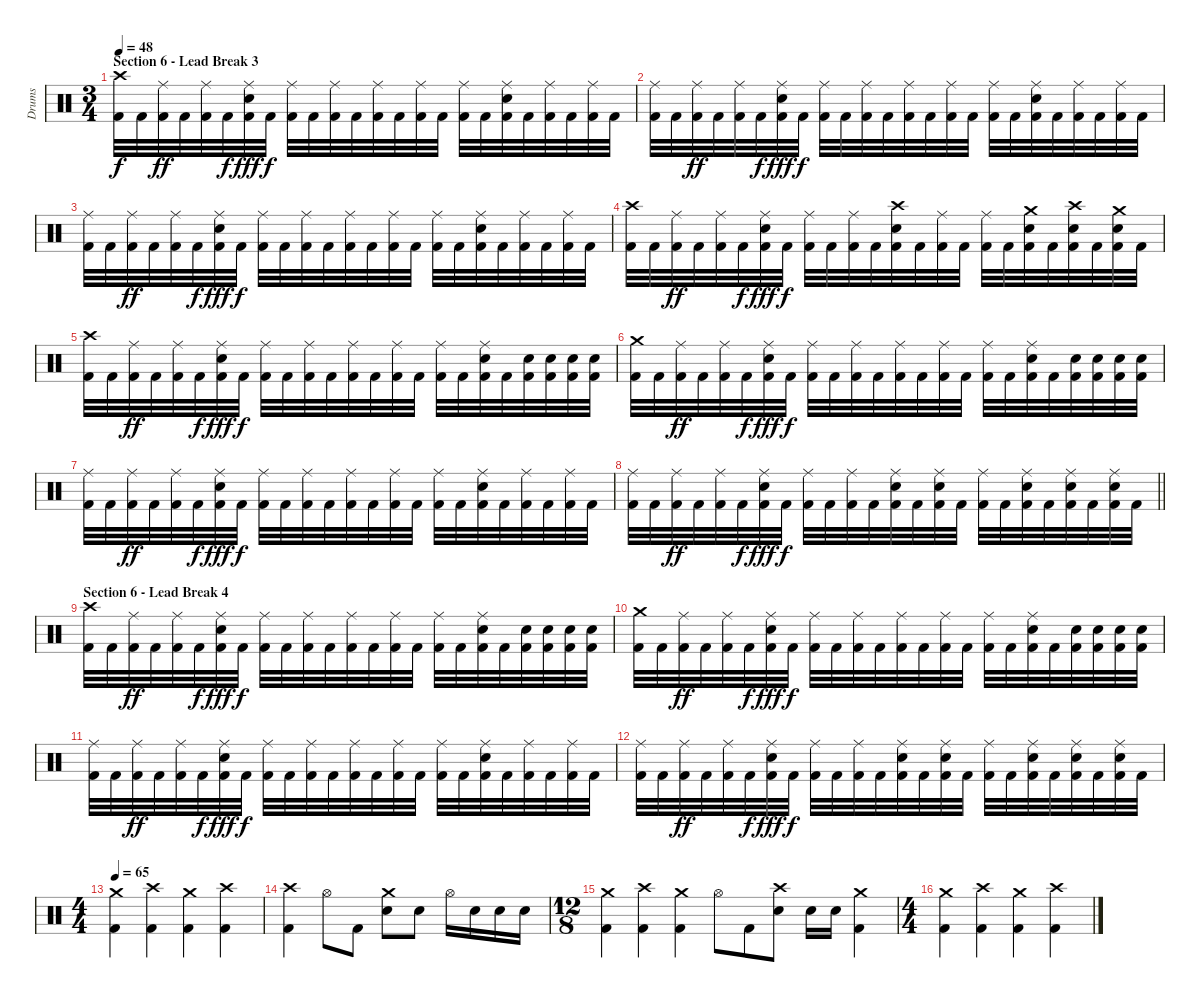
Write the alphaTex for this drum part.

\track ("Drums" "Drums") {instrument percussion}
\staff {score}
\articulation defaults
\ts (3 4)
\section ("" "Section 6 - Lead Break 3")
\tempo 48
\clef neutral
\ks c
("Crash high (hit)" "Kick (hit) 2").32{dy f} "Kick (hit) 2".32 ("Ride (middle)" "Kick (hit) 2").32{dy ff} "Kick (hit) 2".32 ("Ride (middle)" "Kick (hit) 2").32 "Kick (hit) 2".32{dy f} ("Ride (middle)" "Electric Snare (hit)" "Kick (hit) 2").32{dy fff} "Kick (hit) 2".32{dy f} ("Ride (middle)" "Kick (hit) 2").32 "Kick (hit) 2".32 ("Ride (middle)" "Kick (hit) 2").32 "Kick (hit) 2".32 ("Ride (middle)" "Kick (hit) 2").32 "Kick (hit) 2".32 ("Ride (middle)" "Kick (hit) 2").32 "Kick (hit) 2".32 ("Ride (middle)" "Kick (hit) 2").32 "Kick (hit) 2".32 ("Ride (middle)" "Electric Snare (hit)" "Kick (hit) 2").32 "Kick (hit) 2".32 ("Ride (middle)" "Kick (hit) 2").32 "Kick (hit) 2".32 ("Ride (middle)" "Kick (hit) 2").32 "Kick (hit) 2".32 |
("Ride (middle)" "Kick (hit) 2").32 "Kick (hit) 2".32 ("Ride (middle)" "Kick (hit) 2").32{dy ff} "Kick (hit) 2".32 ("Ride (middle)" "Kick (hit) 2").32 "Kick (hit) 2".32{dy f} ("Ride (middle)" "Electric Snare (hit)" "Kick (hit) 2").32{dy fff} "Kick (hit) 2".32{dy f} ("Ride (middle)" "Kick (hit) 2").32 "Kick (hit) 2".32 ("Ride (middle)" "Kick (hit) 2").32 "Kick (hit) 2".32 ("Ride (middle)" "Kick (hit) 2").32 "Kick (hit) 2".32 ("Ride (middle)" "Kick (hit) 2").32 "Kick (hit) 2".32 ("Ride (middle)" "Kick (hit) 2").32 "Kick (hit) 2".32 ("Ride (middle)" "Electric Snare (hit)" "Kick (hit) 2").32 "Kick (hit) 2".32 ("Ride (middle)" "Kick (hit) 2").32 "Kick (hit) 2".32 ("Ride (middle)" "Kick (hit) 2").32 "Kick (hit) 2".32 |
("Ride (middle)" "Kick (hit) 2").32 "Kick (hit) 2".32 ("Ride (middle)" "Kick (hit) 2").32{dy ff} "Kick (hit) 2".32 ("Ride (middle)" "Kick (hit) 2").32 "Kick (hit) 2".32{dy f} ("Ride (middle)" "Electric Snare (hit)" "Kick (hit) 2").32{dy fff} "Kick (hit) 2".32{dy f} ("Ride (middle)" "Kick (hit) 2").32 "Kick (hit) 2".32 ("Ride (middle)" "Kick (hit) 2").32 "Kick (hit) 2".32 ("Ride (middle)" "Kick (hit) 2").32 "Kick (hit) 2".32 ("Ride (middle)" "Kick (hit) 2").32 "Kick (hit) 2".32 ("Ride (middle)" "Kick (hit) 2").32 "Kick (hit) 2".32 ("Ride (middle)" "Electric Snare (hit)" "Kick (hit) 2").32 "Kick (hit) 2".32 ("Ride (middle)" "Kick (hit) 2").32 "Kick (hit) 2".32 ("Ride (middle)" "Kick (hit) 2").32 "Kick (hit) 2".32 |
("Crash high (hit)" "Kick (hit) 2").32 "Kick (hit) 2".32 ("Ride (middle)" "Kick (hit) 2").32{dy ff} "Kick (hit) 2".32 ("Ride (middle)" "Kick (hit) 2").32 "Kick (hit) 2".32{dy f} ("Ride (middle)" "Electric Snare (hit)" "Kick (hit) 2").32{dy fff} "Kick (hit) 2".32{dy f} ("Ride (middle)" "Kick (hit) 2").32 "Kick (hit) 2".32 ("Ride (middle)" "Kick (hit) 2").32 "Kick (hit) 2".32 ("Crash high (hit)" "Electric Snare (hit)" "Kick (hit) 2").32 "Kick (hit) 2".32 ("Ride (middle)" "Kick (hit) 2").32 "Kick (hit) 2".32 ("Ride (middle)" "Kick (hit) 2").32 "Kick (hit) 2".32 ("Crash medium (hit)" "Electric Snare (hit)" "Kick (hit) 2").32 "Kick (hit) 2".32 ("Crash high (hit)" "Electric Snare (hit)" "Kick (hit) 2").32 "Kick (hit) 2".32 ("Crash medium (hit)" "Electric Snare (hit)" "Kick (hit) 2").32 "Kick (hit) 2".32 |
("Crash high (hit)" "Kick (hit) 2").32 "Kick (hit) 2".32 ("Ride (middle)" "Kick (hit) 2").32{dy ff} "Kick (hit) 2".32 ("Ride (middle)" "Kick (hit) 2").32 "Kick (hit) 2".32{dy f} ("Ride (middle)" "Electric Snare (hit)" "Kick (hit) 2").32{dy fff} "Kick (hit) 2".32{dy f} ("Ride (middle)" "Kick (hit) 2").32 "Kick (hit) 2".32 ("Ride (middle)" "Kick (hit) 2").32 "Kick (hit) 2".32 ("Ride (middle)" "Kick (hit) 2").32 "Kick (hit) 2".32 ("Ride (middle)" "Kick (hit) 2").32 "Kick (hit) 2".32 ("Ride (middle)" "Kick (hit) 2").32 "Kick (hit) 2".32 ("Ride (middle)" "Electric Snare (hit)" "Kick (hit) 2").32 "Kick (hit) 2".32 ("Electric Snare (hit)" "Kick (hit) 2").32 ("Electric Snare (hit)" "Kick (hit) 2").32 ("Electric Snare (hit)" "Kick (hit) 2").32 ("Electric Snare (hit)" "Kick (hit) 2").32 |
("Crash medium (hit)" "Kick (hit) 2").32 "Kick (hit) 2".32 ("Ride (middle)" "Kick (hit) 2").32{dy ff} "Kick (hit) 2".32 ("Ride (middle)" "Kick (hit) 2").32 "Kick (hit) 2".32{dy f} ("Ride (middle)" "Electric Snare (hit)" "Kick (hit) 2").32{dy fff} "Kick (hit) 2".32{dy f} ("Ride (middle)" "Kick (hit) 2").32 "Kick (hit) 2".32 ("Ride (middle)" "Kick (hit) 2").32 "Kick (hit) 2".32 ("Ride (middle)" "Kick (hit) 2").32 "Kick (hit) 2".32 ("Ride (middle)" "Kick (hit) 2").32 "Kick (hit) 2".32 ("Ride (middle)" "Kick (hit) 2").32 "Kick (hit) 2".32 ("Ride (middle)" "Electric Snare (hit)" "Kick (hit) 2").32 "Kick (hit) 2".32 ("Electric Snare (hit)" "Kick (hit) 2").32 ("Electric Snare (hit)" "Kick (hit) 2").32 ("Electric Snare (hit)" "Kick (hit) 2").32 ("Electric Snare (hit)" "Kick (hit) 2").32 |
("Ride (middle)" "Kick (hit) 2").32 "Kick (hit) 2".32 ("Ride (middle)" "Kick (hit) 2").32{dy ff} "Kick (hit) 2".32 ("Ride (middle)" "Kick (hit) 2").32 "Kick (hit) 2".32{dy f} ("Ride (middle)" "Electric Snare (hit)" "Kick (hit) 2").32{dy fff} "Kick (hit) 2".32{dy f} ("Ride (middle)" "Kick (hit) 2").32 "Kick (hit) 2".32 ("Ride (middle)" "Kick (hit) 2").32 "Kick (hit) 2".32 ("Ride (middle)" "Kick (hit) 2").32 "Kick (hit) 2".32 ("Ride (middle)" "Kick (hit) 2").32 "Kick (hit) 2".32 ("Ride (middle)" "Kick (hit) 2").32 "Kick (hit) 2".32 ("Ride (middle)" "Electric Snare (hit)" "Kick (hit) 2").32 "Kick (hit) 2".32 ("Ride (middle)" "Kick (hit) 2").32 "Kick (hit) 2".32 ("Ride (middle)" "Kick (hit) 2").32 "Kick (hit) 2".32 |
\barLineRight lightlight
("Ride (middle)" "Kick (hit) 2").32 "Kick (hit) 2".32 ("Ride (middle)" "Kick (hit) 2").32{dy ff} "Kick (hit) 2".32 ("Ride (middle)" "Kick (hit) 2").32 "Kick (hit) 2".32{dy f} ("Ride (middle)" "Electric Snare (hit)" "Kick (hit) 2").32{dy fff} "Kick (hit) 2".32{dy f} ("Ride (middle)" "Kick (hit) 2").32 "Kick (hit) 2".32 ("Ride (middle)" "Kick (hit) 2").32 "Kick (hit) 2".32 ("Ride (middle)" "Electric Snare (hit)" "Kick (hit) 2").32 "Kick (hit) 2".32 ("Ride (middle)" "Electric Snare (hit)" "Kick (hit) 2").32 "Kick (hit) 2".32 ("Ride (middle)" "Kick (hit) 2").32 "Kick (hit) 2".32 ("Ride (middle)" "Electric Snare (hit)" "Kick (hit) 2").32 "Kick (hit) 2".32 ("Ride (middle)" "Electric Snare (hit)" "Kick (hit) 2").32 "Kick (hit) 2".32 ("Ride (middle)" "Electric Snare (hit)" "Kick (hit) 2").32 "Kick (hit) 2".32 |
\section ("" "Section 6 - Lead Break 4")
("Crash high (hit)" "Kick (hit) 2").32 "Kick (hit) 2".32 ("Ride (middle)" "Kick (hit) 2").32{dy ff} "Kick (hit) 2".32 ("Ride (middle)" "Kick (hit) 2").32 "Kick (hit) 2".32{dy f} ("Ride (middle)" "Electric Snare (hit)" "Kick (hit) 2").32{dy fff} "Kick (hit) 2".32{dy f} ("Ride (middle)" "Kick (hit) 2").32 "Kick (hit) 2".32 ("Ride (middle)" "Kick (hit) 2").32 "Kick (hit) 2".32 ("Ride (middle)" "Kick (hit) 2").32 "Kick (hit) 2".32 ("Ride (middle)" "Kick (hit) 2").32 "Kick (hit) 2".32 ("Ride (middle)" "Kick (hit) 2").32 "Kick (hit) 2".32 ("Ride (middle)" "Electric Snare (hit)" "Kick (hit) 2").32 "Kick (hit) 2".32 ("Electric Snare (hit)" "Kick (hit) 2").32 ("Electric Snare (hit)" "Kick (hit) 2").32 ("Electric Snare (hit)" "Kick (hit) 2").32 ("Electric Snare (hit)" "Kick (hit) 2").32 |
("Crash medium (hit)" "Kick (hit) 2").32 "Kick (hit) 2".32 ("Ride (middle)" "Kick (hit) 2").32{dy ff} "Kick (hit) 2".32 ("Ride (middle)" "Kick (hit) 2").32 "Kick (hit) 2".32{dy f} ("Ride (middle)" "Electric Snare (hit)" "Kick (hit) 2").32{dy fff} "Kick (hit) 2".32{dy f} ("Ride (middle)" "Kick (hit) 2").32 "Kick (hit) 2".32 ("Ride (middle)" "Kick (hit) 2").32 "Kick (hit) 2".32 ("Ride (middle)" "Kick (hit) 2").32 "Kick (hit) 2".32 ("Ride (middle)" "Kick (hit) 2").32 "Kick (hit) 2".32 ("Ride (middle)" "Kick (hit) 2").32 "Kick (hit) 2".32 ("Ride (middle)" "Electric Snare (hit)" "Kick (hit) 2").32 "Kick (hit) 2".32 ("Electric Snare (hit)" "Kick (hit) 2").32 ("Electric Snare (hit)" "Kick (hit) 2").32 ("Electric Snare (hit)" "Kick (hit) 2").32 ("Electric Snare (hit)" "Kick (hit) 2").32 |
("Ride (middle)" "Kick (hit) 2").32 "Kick (hit) 2".32 ("Ride (middle)" "Kick (hit) 2").32{dy ff} "Kick (hit) 2".32 ("Ride (middle)" "Kick (hit) 2").32 "Kick (hit) 2".32{dy f} ("Ride (middle)" "Electric Snare (hit)" "Kick (hit) 2").32{dy fff} "Kick (hit) 2".32{dy f} ("Ride (middle)" "Kick (hit) 2").32 "Kick (hit) 2".32 ("Ride (middle)" "Kick (hit) 2").32 "Kick (hit) 2".32 ("Ride (middle)" "Kick (hit) 2").32 "Kick (hit) 2".32 ("Ride (middle)" "Kick (hit) 2").32 "Kick (hit) 2".32 ("Ride (middle)" "Kick (hit) 2").32 "Kick (hit) 2".32 ("Ride (middle)" "Electric Snare (hit)" "Kick (hit) 2").32 "Kick (hit) 2".32 ("Ride (middle)" "Kick (hit) 2").32 "Kick (hit) 2".32 ("Ride (middle)" "Kick (hit) 2").32 "Kick (hit) 2".32 |
("Ride (middle)" "Kick (hit) 2").32 "Kick (hit) 2".32 ("Ride (middle)" "Kick (hit) 2").32{dy ff} "Kick (hit) 2".32 ("Ride (middle)" "Kick (hit) 2").32 "Kick (hit) 2".32{dy f} ("Ride (middle)" "Electric Snare (hit)" "Kick (hit) 2").32{dy fff} "Kick (hit) 2".32{dy f} ("Ride (middle)" "Kick (hit) 2").32 "Kick (hit) 2".32 ("Ride (middle)" "Kick (hit) 2").32 "Kick (hit) 2".32 ("Ride (middle)" "Electric Snare (hit)" "Kick (hit) 2").32 "Kick (hit) 2".32 ("Ride (middle)" "Electric Snare (hit)" "Kick (hit) 2").32 "Kick (hit) 2".32 ("Ride (middle)" "Kick (hit) 2").32 "Kick (hit) 2".32 ("Ride (middle)" "Electric Snare (hit)" "Kick (hit) 2").32 "Kick (hit) 2".32 ("Ride (middle)" "Electric Snare (hit)" "Kick (hit) 2").32 "Kick (hit) 2".32 ("Ride (middle)" "Electric Snare (hit)" "Kick (hit) 2").32 "Kick (hit) 2".32 |
\ts (4 4)
\tempo 65
("Crash medium (hit)" "Kick (hit) 2").4 ("Crash high (hit)" "Kick (hit) 2").4 ("Crash medium (hit)" "Kick (hit) 2").4 ("Crash high (hit)" "Kick (hit) 2").4 |
("Crash high (hit)" "Kick (hit) 2").4 "Hi-Hat (open)".8 "Kick (hit) 2".8 ("Crash medium (hit)" "Electric Snare (hit)").8 "Electric Snare (hit)".8 "Hi-Hat (open)".16 "Electric Snare (hit)".16 "Electric Snare (hit)".16 "Electric Snare (hit)".16 |
\ts (12 8)
("Crash medium (hit)" "Kick (hit) 2").4 ("Crash high (hit)" "Kick (hit) 2").4 ("Crash medium (hit)" "Kick (hit) 2").4 "Hi-Hat (open)".8 "Kick (hit) 2".8 ("Crash high (hit)" "Electric Snare (hit)").8 "Electric Snare (hit)".16 "Electric Snare (hit)".16 ("Crash medium (hit)" "Kick (hit) 2").4 |
\ts (4 4)
("Crash medium (hit)" "Kick (hit) 2").4 ("Crash high (hit)" "Kick (hit) 2").4 ("Crash medium (hit)" "Kick (hit) 2").4 ("Crash high (hit)" "Kick (hit) 2").4
